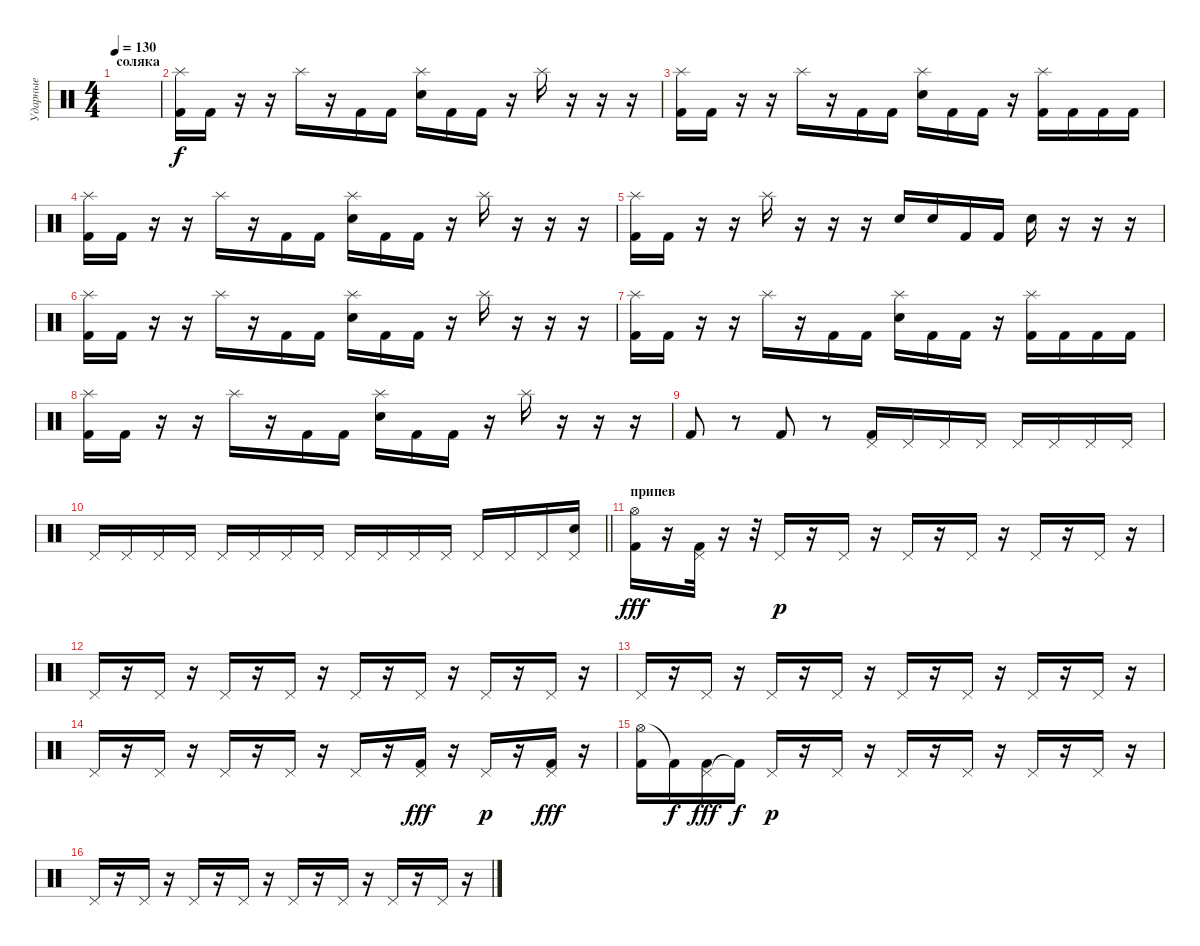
\track ("Ударные" "Ударные") {instrument percussion}
\staff {score}
\articulation defaults
\ts (4 4)
\section ("" "соляка")
\tempo 130
\clef neutral
\ks c
|
("Splash (hit)" "Kick (hit) 2").16 "Kick (hit) 2".16 r.16 r.16 "Splash (hit)".16 r.16 "Kick (hit) 2".16 "Kick (hit) 2".16 ("Splash (hit)" "Electric Snare (hit)").16 "Kick (hit) 2".16 "Kick (hit) 2".16 r.16 "Splash (hit)".16 r.16 r.16 r.16 |
("Splash (hit)" "Kick (hit) 2").16 "Kick (hit) 2".16 r.16 r.16 "Splash (hit)".16 r.16 "Kick (hit) 2".16 "Kick (hit) 2".16 ("Splash (hit)" "Electric Snare (hit)").16 "Kick (hit) 2".16 "Kick (hit) 2".16 r.16 ("Splash (hit)" "Kick (hit) 2").16 "Kick (hit) 2".16 "Kick (hit) 2".16 "Kick (hit) 2".16 |
("Splash (hit)" "Kick (hit) 2").16 "Kick (hit) 2".16 r.16 r.16 "Splash (hit)".16 r.16 "Kick (hit) 2".16 "Kick (hit) 2".16 ("Splash (hit)" "Electric Snare (hit)").16 "Kick (hit) 2".16 "Kick (hit) 2".16 r.16 "Splash (hit)".16 r.16 r.16 r.16 |
("Splash (hit)" "Kick (hit) 2").16 "Kick (hit) 2".16 r.16 r.16 "Splash (hit)".16 r.16 r.16 r.16 "Electric Snare (hit)".16 "Electric Snare (hit)".16 "Kick (hit) 2".16 "Kick (hit) 2".16 "Electric Snare (hit)".16 r.16 r.16 r.16 |
("Splash (hit)" "Kick (hit) 2").16 "Kick (hit) 2".16 r.16 r.16 "Splash (hit)".16 r.16 "Kick (hit) 2".16 "Kick (hit) 2".16 ("Splash (hit)" "Electric Snare (hit)").16 "Kick (hit) 2".16 "Kick (hit) 2".16 r.16 "Splash (hit)".16 r.16 r.16 r.16 |
("Splash (hit)" "Kick (hit) 2").16 "Kick (hit) 2".16 r.16 r.16 "Splash (hit)".16 r.16 "Kick (hit) 2".16 "Kick (hit) 2".16 ("Splash (hit)" "Electric Snare (hit)").16 "Kick (hit) 2".16 "Kick (hit) 2".16 r.16 ("Splash (hit)" "Kick (hit) 2").16 "Kick (hit) 2".16 "Kick (hit) 2".16 "Kick (hit) 2".16 |
("Splash (hit)" "Kick (hit) 2").16 "Kick (hit) 2".16 r.16 r.16 "Splash (hit)".16 r.16 "Kick (hit) 2".16 "Kick (hit) 2".16 ("Splash (hit)" "Electric Snare (hit)").16 "Kick (hit) 2".16 "Kick (hit) 2".16 r.16 "Splash (hit)".16 r.16 r.16 r.16 |
"Kick (hit) 2".8 r.8 "Kick (hit) 2".8 r.8 ("Pedal Hi-Hat (hit)" "Kick (hit) 2").16 "Pedal Hi-Hat (hit)".16 "Pedal Hi-Hat (hit)".16 "Pedal Hi-Hat (hit)".16 "Pedal Hi-Hat (hit)".16 "Pedal Hi-Hat (hit)".16 "Pedal Hi-Hat (hit)".16 "Pedal Hi-Hat (hit)".16 |
\barLineRight lightlight "Pedal Hi-Hat (hit)".16 "Pedal Hi-Hat (hit)".16 "Pedal Hi-Hat (hit)".16 "Pedal Hi-Hat (hit)".16 "Pedal Hi-Hat (hit)".16 "Pedal Hi-Hat (hit)".16 "Pedal Hi-Hat (hit)".16 "Pedal Hi-Hat (hit)".16 "Pedal Hi-Hat (hit)".16 "Pedal Hi-Hat (hit)".16 "Pedal Hi-Hat (hit)".16 "Pedal Hi-Hat (hit)".16 "Pedal Hi-Hat (hit)".16 "Pedal Hi-Hat (hit)".16 "Pedal Hi-Hat (hit)".16
("Pedal Hi-Hat (hit)" "Snare (hit)").16 |
\section ("" "припев")
("Hi-Hat (open)" "Kick (hit) 2").16{dy fff} r.16 ("Pedal Hi-Hat (hit)" "Kick (hit) 2").32 r.16 r.32 "Pedal Hi-Hat (hit)".16{dy p} r.16 "Pedal Hi-Hat (hit)".16 r.16 "Pedal Hi-Hat (hit)".16 r.16 "Pedal Hi-Hat (hit)".16 r.16 "Pedal Hi-Hat (hit)".16 r.16 "Pedal Hi-Hat (hit)".16 r.16 |
"Pedal Hi-Hat (hit)".16 r.16 "Pedal Hi-Hat (hit)".16 r.16 "Pedal Hi-Hat (hit)".16 r.16 "Pedal Hi-Hat (hit)".16 r.16 "Pedal Hi-Hat (hit)".16 r.16 "Pedal Hi-Hat (hit)".16 r.16 "Pedal Hi-Hat (hit)".16 r.16 "Pedal Hi-Hat (hit)".16 r.16 |
"Pedal Hi-Hat (hit)".16 r.16 "Pedal Hi-Hat (hit)".16 r.16 "Pedal Hi-Hat (hit)".16 r.16 "Pedal Hi-Hat (hit)".16 r.16 "Pedal Hi-Hat (hit)".16 r.16 "Pedal Hi-Hat (hit)".16 r.16 "Pedal Hi-Hat (hit)".16 r.16 "Pedal Hi-Hat (hit)".16 r.16 |
"Pedal Hi-Hat (hit)".16 r.16 "Pedal Hi-Hat (hit)".16 r.16 "Pedal Hi-Hat (hit)".16 r.16 "Pedal Hi-Hat (hit)".16 r.16 "Pedal Hi-Hat (hit)".16 r.16 ("Pedal Hi-Hat (hit)" "Kick (hit) 2").16{dy fff} r.16 "Pedal Hi-Hat (hit)".16{dy p} r.16 ("Pedal Hi-Hat (hit)" "Kick (hit) 2").16{dy fff} r.16 |
("Hi-Hat (open)" "Kick (hit) 2").16 "Kick (hit) 2"{t}.16{dy f} ("Pedal Hi-Hat (hit)" "Kick (hit) 2").16{dy fff} "Kick (hit) 2"{t}.16{dy f} "Pedal Hi-Hat (hit)".16{dy p} r.16 "Pedal Hi-Hat (hit)".16 r.16 "Pedal Hi-Hat (hit)".16 r.16 "Pedal Hi-Hat (hit)".16 r.16 "Pedal Hi-Hat (hit)".16 r.16 "Pedal Hi-Hat (hit)".16 r.16 |
"Pedal Hi-Hat (hit)".16 r.16 "Pedal Hi-Hat (hit)".16 r.16 "Pedal Hi-Hat (hit)".16 r.16 "Pedal Hi-Hat (hit)".16 r.16 "Pedal Hi-Hat (hit)".16 r.16 "Pedal Hi-Hat (hit)".16 r.16 "Pedal Hi-Hat (hit)".16 r.16 "Pedal Hi-Hat (hit)".16 r.16
